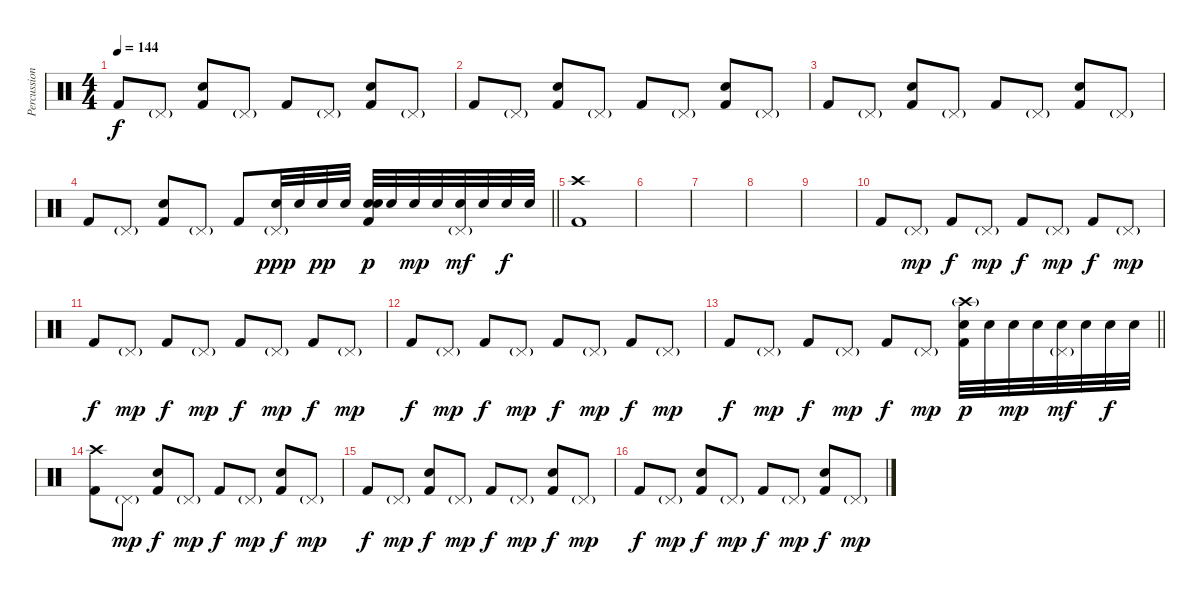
\track ("Percussion" "Percussion") {instrument percussion}
\staff {score}
\articulation defaults
\ts (4 4)
\tempo 144
\clef neutral
\ks c "Kick (hit) 2".8{dy f} "Pedal Hi-Hat (hit)"{g}.8
("Electric Snare (hit)" "Kick (hit) 2").8 "Pedal Hi-Hat (hit)"{g}.8 "Kick (hit) 2".8 "Pedal Hi-Hat (hit)"{g}.8 ("Electric Snare (hit)" "Kick (hit) 2").8 "Pedal Hi-Hat (hit)"{g}.8 |
"Kick (hit) 2".8 "Pedal Hi-Hat (hit)"{g}.8 ("Electric Snare (hit)" "Kick (hit) 2").8 "Pedal Hi-Hat (hit)"{g}.8 "Kick (hit) 2".8 "Pedal Hi-Hat (hit)"{g}.8 ("Electric Snare (hit)" "Kick (hit) 2").8 "Pedal Hi-Hat (hit)"{g}.8 |
"Kick (hit) 2".8 "Pedal Hi-Hat (hit)"{g}.8 ("Electric Snare (hit)" "Kick (hit) 2").8 "Pedal Hi-Hat (hit)"{g}.8 "Kick (hit) 2".8 "Pedal Hi-Hat (hit)"{g}.8 ("Electric Snare (hit)" "Kick (hit) 2").8 "Pedal Hi-Hat (hit)"{g}.8 |
\barLineRight lightlight "Kick (hit) 2".8 "Pedal Hi-Hat (hit)"{g}.8
("Electric Snare (hit)" "Kick (hit) 2").8 "Pedal Hi-Hat (hit)"{g}.8 "Kick (hit) 2".8 ("Pedal Hi-Hat (hit)"{g} "Snare (hit) 2").32{dy ppp} "Snare (hit) 2".32 "Snare (hit) 2".32{dy pp} "Snare (hit) 2".32 ("Electric Snare (hit)" "Snare (hit) 2" "Kick (hit) 2").32{dy p} "Snare (hit) 2".32 "Snare (hit) 2".32{dy mp} "Snare (hit) 2".32 ("Pedal Hi-Hat (hit)"{g} "Snare (hit) 2").32{dy mf} "Snare (hit) 2".32 "Snare (hit) 2".32{dy f} "Snare (hit) 2".32 |
("Crash high (hit)" "Kick (hit) 2").1 |
|
|
|
|
"Kick (hit) 2".8 "Pedal Hi-Hat (hit)"{g}.8{dy mp} "Kick (hit) 2".8{dy f} "Pedal Hi-Hat (hit)"{g}.8{dy mp} "Kick (hit) 2".8{dy f} "Pedal Hi-Hat (hit)"{g}.8{dy mp} "Kick (hit) 2".8{dy f} "Pedal Hi-Hat (hit)"{g}.8{dy mp} |
"Kick (hit) 2".8{dy f} "Pedal Hi-Hat (hit)"{g}.8{dy mp} "Kick (hit) 2".8{dy f} "Pedal Hi-Hat (hit)"{g}.8{dy mp} "Kick (hit) 2".8{dy f} "Pedal Hi-Hat (hit)"{g}.8{dy mp} "Kick (hit) 2".8{dy f} "Pedal Hi-Hat (hit)"{g}.8{dy mp} |
"Kick (hit) 2".8{dy f} "Pedal Hi-Hat (hit)"{g}.8{dy mp} "Kick (hit) 2".8{dy f} "Pedal Hi-Hat (hit)"{g}.8{dy mp} "Kick (hit) 2".8{dy f} "Pedal Hi-Hat (hit)"{g}.8{dy mp} "Kick (hit) 2".8{dy f} "Pedal Hi-Hat (hit)"{g}.8{dy mp} |
\barLineRight lightlight "Kick (hit) 2".8{dy f} "Pedal Hi-Hat (hit)"{g}.8{dy mp} "Kick (hit) 2".8{dy f} "Pedal Hi-Hat (hit)"{g}.8{dy mp} "Kick (hit) 2".8{dy f} "Pedal Hi-Hat (hit)"{g}.8{dy mp}
("Crash high (hit)"{g} "Snare (hit) 2" "Kick (hit) 2").32{dy p} "Snare (hit) 2".32 "Snare (hit) 2".32{dy mp} "Snare (hit) 2".32 ("Pedal Hi-Hat (hit)"{g} "Snare (hit) 2").32{dy mf} "Snare (hit) 2".32 "Snare (hit) 2".32{dy f} "Snare (hit) 2".32 |
("Crash high (hit)" "Kick (hit) 2").8 "Pedal Hi-Hat (hit)"{g}.8{dy mp} ("Electric Snare (hit)" "Kick (hit) 2").8{dy f} "Pedal Hi-Hat (hit)"{g}.8{dy mp} "Kick (hit) 2".8{dy f} "Pedal Hi-Hat (hit)"{g}.8{dy mp} ("Electric Snare (hit)" "Kick (hit) 2").8{dy f} "Pedal Hi-Hat (hit)"{g}.8{dy mp} |
"Kick (hit) 2".8{dy f} "Pedal Hi-Hat (hit)"{g}.8{dy mp} ("Electric Snare (hit)" "Kick (hit) 2").8{dy f} "Pedal Hi-Hat (hit)"{g}.8{dy mp} "Kick (hit) 2".8{dy f} "Pedal Hi-Hat (hit)"{g}.8{dy mp} ("Electric Snare (hit)" "Kick (hit) 2").8{dy f} "Pedal Hi-Hat (hit)"{g}.8{dy mp} |
"Kick (hit) 2".8{dy f} "Pedal Hi-Hat (hit)"{g}.8{dy mp} ("Electric Snare (hit)" "Kick (hit) 2").8{dy f} "Pedal Hi-Hat (hit)"{g}.8{dy mp} "Kick (hit) 2".8{dy f} "Pedal Hi-Hat (hit)"{g}.8{dy mp} ("Electric Snare (hit)" "Kick (hit) 2").8{dy f} "Pedal Hi-Hat (hit)"{g}.8{dy mp}
